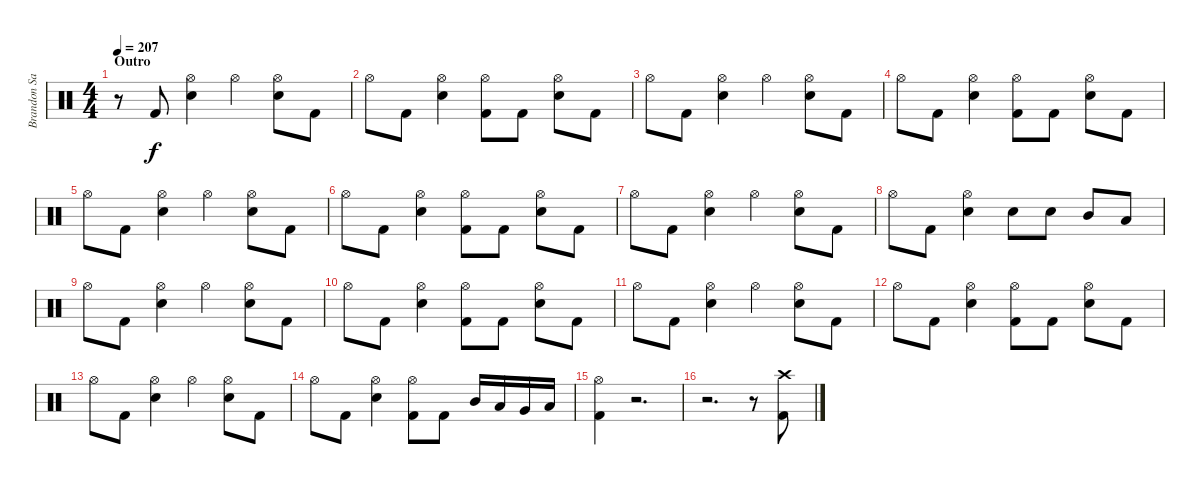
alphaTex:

\track ("Brandon Saller" "Brandon Sa") {instrument percussion}
\staff {score}
\articulation defaults
\ts (4 4)
\section ("" "Outro")
\tempo 207
\clef neutral
\ks c
r.8{dy f} "Kick (hit) 2".8 ("Hi-Hat (open)" "Electric Snare (hit)").4 "Hi-Hat (open)".4 ("Hi-Hat (open)" "Electric Snare (hit)").8 "Kick (hit) 2".8 |
"Hi-Hat (open)".8 "Kick (hit) 2".8 ("Hi-Hat (open)" "Electric Snare (hit)").4 ("Hi-Hat (open)" "Kick (hit) 2").8 "Kick (hit) 2".8 ("Hi-Hat (open)" "Electric Snare (hit)").8 "Kick (hit) 2".8 |
"Hi-Hat (open)".8 "Kick (hit) 2".8 ("Hi-Hat (open)" "Electric Snare (hit)").4 "Hi-Hat (open)".4 ("Hi-Hat (open)" "Electric Snare (hit)").8 "Kick (hit) 2".8 |
"Hi-Hat (open)".8 "Kick (hit) 2".8 ("Hi-Hat (open)" "Electric Snare (hit)").4 ("Hi-Hat (open)" "Kick (hit) 2").8 "Kick (hit) 2".8 ("Hi-Hat (open)" "Electric Snare (hit)").8 "Kick (hit) 2".8 |
"Hi-Hat (open)".8 "Kick (hit) 2".8 ("Hi-Hat (open)" "Electric Snare (hit)").4 "Hi-Hat (open)".4 ("Hi-Hat (open)" "Electric Snare (hit)").8 "Kick (hit) 2".8 |
"Hi-Hat (open)".8 "Kick (hit) 2".8 ("Hi-Hat (open)" "Electric Snare (hit)").4 ("Hi-Hat (open)" "Kick (hit) 2").8 "Kick (hit) 2".8 ("Hi-Hat (open)" "Electric Snare (hit)").8 "Kick (hit) 2".8 |
"Hi-Hat (open)".8 "Kick (hit) 2".8 ("Hi-Hat (open)" "Electric Snare (hit)").4 "Hi-Hat (open)".4 ("Hi-Hat (open)" "Electric Snare (hit)").8 "Kick (hit) 2".8 |
"Hi-Hat (open)".8 "Kick (hit) 2".8 ("Hi-Hat (open)" "Electric Snare (hit)").4 "Electric Snare (hit)".8 "Electric Snare (hit)".8 "Mid Tom (hit)".8 "Low Tom (hit)".8 |
"Hi-Hat (open)".8 "Kick (hit) 2".8 ("Hi-Hat (open)" "Electric Snare (hit)").4 "Hi-Hat (open)".4 ("Hi-Hat (open)" "Electric Snare (hit)").8 "Kick (hit) 2".8 |
"Hi-Hat (open)".8 "Kick (hit) 2".8 ("Hi-Hat (open)" "Electric Snare (hit)").4 ("Hi-Hat (open)" "Kick (hit) 2").8 "Kick (hit) 2".8 ("Hi-Hat (open)" "Electric Snare (hit)").8 "Kick (hit) 2".8 |
"Hi-Hat (open)".8 "Kick (hit) 2".8 ("Hi-Hat (open)" "Electric Snare (hit)").4 "Hi-Hat (open)".4 ("Hi-Hat (open)" "Electric Snare (hit)").8 "Kick (hit) 2".8 |
"Hi-Hat (open)".8 "Kick (hit) 2".8 ("Hi-Hat (open)" "Electric Snare (hit)").4 ("Hi-Hat (open)" "Kick (hit) 2").8 "Kick (hit) 2".8 ("Hi-Hat (open)" "Electric Snare (hit)").8 "Kick (hit) 2".8 |
"Hi-Hat (open)".8 "Kick (hit) 2".8 ("Hi-Hat (open)" "Electric Snare (hit)").4 "Hi-Hat (open)".4 ("Hi-Hat (open)" "Electric Snare (hit)").8 "Kick (hit) 2".8 |
"Hi-Hat (open)".8 "Kick (hit) 2".8 ("Hi-Hat (open)" "Electric Snare (hit)").4 ("Hi-Hat (open)" "Kick (hit) 2").8 "Kick (hit) 2".8 "Mid Tom (hit)".16 "Low Tom (hit)".16 "Very Low Tom (hit)".16 "Low Floor Tom (hit)".16 |
("Hi-Hat (open)" "Kick (hit) 2").4 r.2{d volume 0} |
r.2{d} r.8{volume 16} ("Crash high (hit)" "Kick (hit) 2").8
